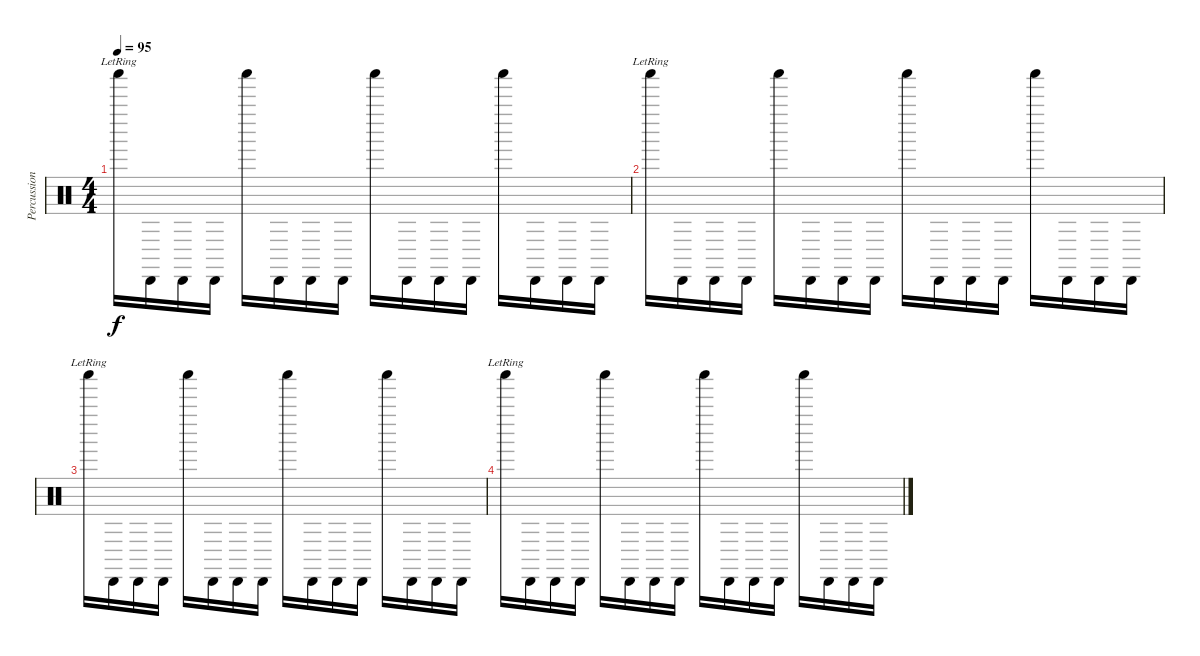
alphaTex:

\track ("Percussion (2)" "Percussion") {instrument percussion}
\staff {score}
\articulation defaults
\ts (4 4)
\tempo 95
\clef neutral
\ks c "Shaker (hit)"{lr}.16{dy f} "Cabasa (hit)".16 "Cabasa (hit)".16 "Cabasa (hit)".16 "Shaker (hit)".16 "Cabasa (hit)".16 "Cabasa (hit)".16 "Cabasa (hit)".16 "Shaker (hit)".16 "Cabasa (hit)".16 "Cabasa (hit)".16 "Cabasa (hit)".16 "Shaker (hit)".16 "Cabasa (hit)".16 "Cabasa (hit)".16 "Cabasa (hit)".16
|
"Shaker (hit)"{lr}.16{volume 4} "Cabasa (hit)".16 "Cabasa (hit)".16 "Cabasa (hit)".16 "Shaker (hit)".16 "Cabasa (hit)".16 "Cabasa (hit)".16 "Cabasa (hit)".16 "Shaker (hit)".16 "Cabasa (hit)".16 "Cabasa (hit)".16 "Cabasa (hit)".16 "Shaker (hit)".16 "Cabasa (hit)".16 "Cabasa (hit)".16 "Cabasa (hit)".16 |
"Shaker (hit)"{lr}.16{volume 2} "Cabasa (hit)".16 "Cabasa (hit)".16 "Cabasa (hit)".16 "Shaker (hit)".16 "Cabasa (hit)".16 "Cabasa (hit)".16 "Cabasa (hit)".16 "Shaker (hit)".16 "Cabasa (hit)".16 "Cabasa (hit)".16 "Cabasa (hit)".16 "Shaker (hit)".16 "Cabasa (hit)".16 "Cabasa (hit)".16 "Cabasa (hit)".16 |
"Shaker (hit)"{lr}.16{volume 0} "Cabasa (hit)".16 "Cabasa (hit)".16 "Cabasa (hit)".16 "Shaker (hit)".16 "Cabasa (hit)".16 "Cabasa (hit)".16 "Cabasa (hit)".16 "Shaker (hit)".16 "Cabasa (hit)".16 "Cabasa (hit)".16 "Cabasa (hit)".16 "Shaker (hit)".16 "Cabasa (hit)".16 "Cabasa (hit)".16 "Cabasa (hit)".16
